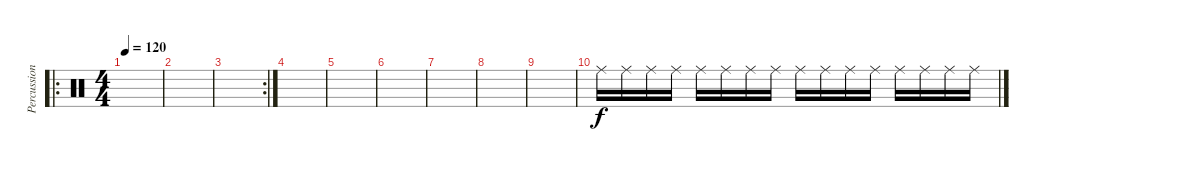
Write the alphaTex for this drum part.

\track ("Percussion" "Percussion") {instrument percussion}
\staff {score}
\articulation defaults
\ro
\ts (4 4)
\tempo 120
\clef neutral
\ks c
|
|
\rc 2
|
|
|
|
|
|
|
"Ride (middle)".16 "Ride (middle)".16 "Ride (middle)".16 "Ride (middle)".16 "Ride (middle)".16 "Ride (middle)".16 "Ride (middle)".16 "Ride (middle)".16 "Ride (middle)".16 "Ride (middle)".16 "Ride (middle)".16 "Ride (middle)".16 "Ride (middle)".16 "Ride (middle)".16 "Ride (middle)".16 "Ride (middle)".16
